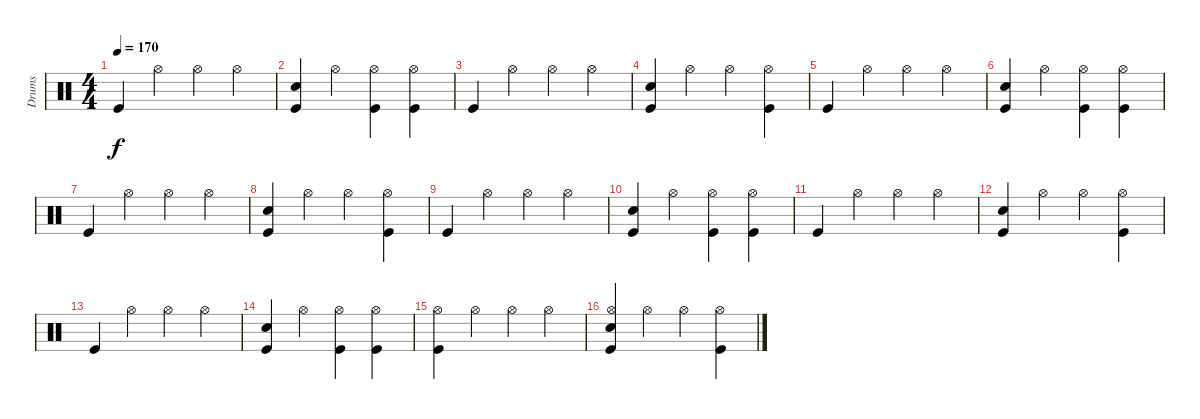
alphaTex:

\track ("Drums" "Drums") {instrument percussion}
\staff {score}
\articulation defaults
\ts (4 4)
\tempo 170
\clef neutral
\ks c "Kick (hit)".4{dy f} "Hi-Hat (open)".4 "Hi-Hat (open)".4 "Hi-Hat (open)".4
|
("Electric Snare (hit)" "Kick (hit)").4 "Hi-Hat (open)".4 ("Hi-Hat (open)" "Kick (hit)").4 ("Hi-Hat (open)" "Kick (hit)").4 |
"Kick (hit)".4 "Hi-Hat (open)".4 "Hi-Hat (open)".4 "Hi-Hat (open)".4 |
("Electric Snare (hit)" "Kick (hit)").4 "Hi-Hat (open)".4 "Hi-Hat (open)".4 ("Hi-Hat (open)" "Kick (hit)").4 |
"Kick (hit)".4 "Hi-Hat (open)".4 "Hi-Hat (open)".4 "Hi-Hat (open)".4 |
("Electric Snare (hit)" "Kick (hit)").4 "Hi-Hat (open)".4 ("Hi-Hat (open)" "Kick (hit)").4 ("Hi-Hat (open)" "Kick (hit)").4 |
"Kick (hit)".4 "Hi-Hat (open)".4 "Hi-Hat (open)".4 "Hi-Hat (open)".4 |
("Electric Snare (hit)" "Kick (hit)").4 "Hi-Hat (open)".4 "Hi-Hat (open)".4 ("Hi-Hat (open)" "Kick (hit)").4 |
"Kick (hit)".4 "Hi-Hat (open)".4 "Hi-Hat (open)".4 "Hi-Hat (open)".4 |
("Electric Snare (hit)" "Kick (hit)").4 "Hi-Hat (open)".4 ("Hi-Hat (open)" "Kick (hit)").4 ("Hi-Hat (open)" "Kick (hit)").4 |
"Kick (hit)".4 "Hi-Hat (open)".4 "Hi-Hat (open)".4 "Hi-Hat (open)".4 |
("Electric Snare (hit)" "Kick (hit)").4 "Hi-Hat (open)".4 "Hi-Hat (open)".4 ("Hi-Hat (open)" "Kick (hit)").4 |
"Kick (hit)".4 "Hi-Hat (open)".4 "Hi-Hat (open)".4 "Hi-Hat (open)".4 |
("Electric Snare (hit)" "Kick (hit)").4 "Hi-Hat (open)".4 ("Hi-Hat (open)" "Kick (hit)").4 ("Hi-Hat (open)" "Kick (hit)").4 |
("Hi-Hat (open)" "Kick (hit)").4 "Hi-Hat (open)".4 "Hi-Hat (open)".4 "Hi-Hat (open)".4 |
("Hi-Hat (open)" "Electric Snare (hit)" "Kick (hit)").4 "Hi-Hat (open)".4 "Hi-Hat (open)".4 ("Hi-Hat (open)" "Kick (hit)").4
